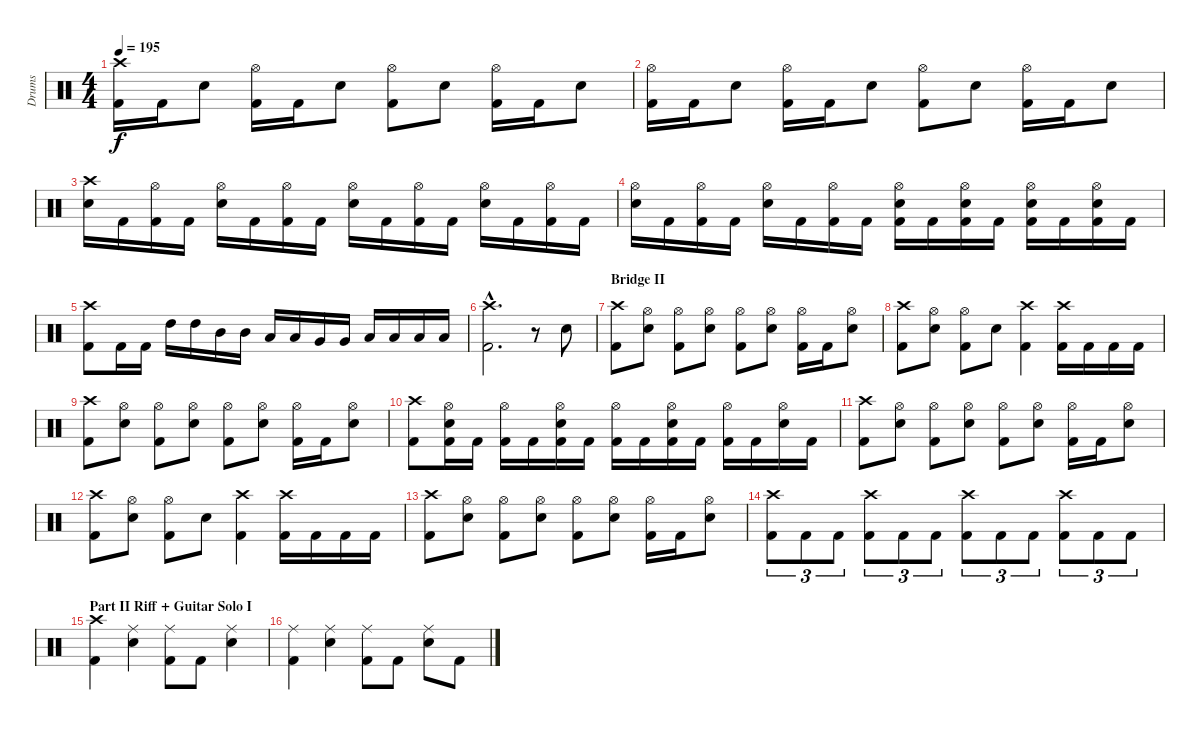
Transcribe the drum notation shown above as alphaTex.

\track ("Drums" "Drums") {instrument percussion}
\staff {score}
\articulation defaults
\ts (4 4)
\tempo 195
\clef neutral
\ks c
("Crash high (hit)" "Kick (hit) 2").16{dy f} "Kick (hit) 2".16 "Snare (hit) 2".8 ("Hi-Hat (open)" "Kick (hit) 2").16 "Kick (hit) 2".16 "Snare (hit) 2".8 ("Hi-Hat (open)" "Kick (hit) 2").8 "Snare (hit) 2".8 ("Hi-Hat (open)" "Kick (hit) 2").16 "Kick (hit) 2".16 "Snare (hit) 2".8 |
("Hi-Hat (open)" "Kick (hit) 2").16 "Kick (hit) 2".16 "Snare (hit) 2".8 ("Hi-Hat (open)" "Kick (hit) 2").16 "Kick (hit) 2".16 "Snare (hit) 2".8 ("Hi-Hat (open)" "Kick (hit) 2").8 "Snare (hit) 2".8 ("Hi-Hat (open)" "Kick (hit) 2").16 "Kick (hit) 2".16 "Snare (hit) 2".8 |
("Crash high (hit)" "Snare (hit) 2").16 "Kick (hit) 2".16 ("Hi-Hat (open)" "Kick (hit) 2").16 "Kick (hit) 2".16 ("Hi-Hat (open)" "Snare (hit) 2").16 "Kick (hit) 2".16 ("Hi-Hat (open)" "Kick (hit) 2").16 "Kick (hit) 2".16 ("Hi-Hat (open)" "Snare (hit) 2").16 "Kick (hit) 2".16 ("Hi-Hat (open)" "Kick (hit) 2").16 "Kick (hit) 2".16 ("Hi-Hat (open)" "Snare (hit) 2").16 "Kick (hit) 2".16 ("Hi-Hat (open)" "Kick (hit) 2").16 "Kick (hit) 2".16 |
("Hi-Hat (open)" "Snare (hit) 2").16 "Kick (hit) 2".16 ("Hi-Hat (open)" "Kick (hit) 2").16 "Kick (hit) 2".16 ("Hi-Hat (open)" "Snare (hit) 2").16 "Kick (hit) 2".16 ("Hi-Hat (open)" "Kick (hit) 2").16 "Kick (hit) 2".16 ("Hi-Hat (open)" "Snare (hit) 2" "Kick (hit) 2").16 "Kick (hit) 2".16 ("Hi-Hat (open)" "Snare (hit) 2" "Kick (hit) 2").16 "Kick (hit) 2".16 ("Hi-Hat (open)" "Snare (hit) 2" "Kick (hit) 2").16 "Kick (hit) 2".16 ("Hi-Hat (open)" "Snare (hit) 2" "Kick (hit) 2").16 "Kick (hit) 2".16 |
("Crash high (hit)" "Kick (hit) 2").8 "Kick (hit) 2".16 "Kick (hit) 2".16 "High Tom (hit)".16 "High Tom (hit)".16 "Mid Tom (hit)".16 "Mid Tom (hit)".16 "Low Tom (hit)".16 "Low Tom (hit)".16 "Very Low Tom (hit)".16 "Very Low Tom (hit)".16 "Low Floor Tom (hit)".16 "Low Floor Tom (hit)".16 "Low Floor Tom (hit)".16 "Low Floor Tom (hit)".16 |
("Crash high (hit)"{hac} "Kick (hit) 2"{hac}).2{d} r.8 "Snare (hit) 2".8 |
\section ("" "Bridge II")
("Crash high (hit)" "Kick (hit) 2").8 ("Hi-Hat (open)" "Snare (hit) 2").8 ("Hi-Hat (open)" "Kick (hit) 2").8 ("Hi-Hat (open)" "Snare (hit) 2").8 ("Hi-Hat (open)" "Kick (hit) 2").8 ("Hi-Hat (open)" "Snare (hit) 2").8 ("Hi-Hat (open)" "Kick (hit) 2").16 "Kick (hit) 2".16 ("Hi-Hat (open)" "Snare (hit) 2").8 |
("Crash high (hit)" "Kick (hit) 2").8 ("Hi-Hat (open)" "Snare (hit) 2").8 ("Hi-Hat (open)" "Kick (hit) 2").8 "Snare (hit) 2".8 ("Crash high (hit)" "Kick (hit) 2").4 ("Crash high (hit)" "Kick (hit) 2").16 "Kick (hit) 2".16 "Kick (hit) 2".16 "Kick (hit) 2".16 |
("Crash high (hit)" "Kick (hit) 2").8 ("Hi-Hat (open)" "Snare (hit) 2").8 ("Hi-Hat (open)" "Kick (hit) 2").8 ("Hi-Hat (open)" "Snare (hit) 2").8 ("Hi-Hat (open)" "Kick (hit) 2").8 ("Hi-Hat (open)" "Snare (hit) 2").8 ("Hi-Hat (open)" "Kick (hit) 2").16 "Kick (hit) 2".16 ("Hi-Hat (open)" "Snare (hit) 2").8 |
("Crash high (hit)" "Kick (hit) 2").8 ("Hi-Hat (open)" "Snare (hit) 2" "Kick (hit) 2").16 "Kick (hit) 2".16 ("Hi-Hat (open)" "Kick (hit) 2").16 "Kick (hit) 2".16 ("Hi-Hat (open)" "Snare (hit) 2" "Kick (hit) 2").16 "Kick (hit) 2".16 ("Hi-Hat (open)" "Kick (hit) 2").16 "Kick (hit) 2".16 ("Hi-Hat (open)" "Snare (hit) 2" "Kick (hit) 2").16 "Kick (hit) 2".16 ("Hi-Hat (open)" "Kick (hit) 2").16 "Kick (hit) 2".16 ("Hi-Hat (open)" "Snare (hit) 2").16 "Kick (hit) 2".16 |
("Crash high (hit)" "Kick (hit) 2").8 ("Hi-Hat (open)" "Snare (hit) 2").8 ("Hi-Hat (open)" "Kick (hit) 2").8 ("Hi-Hat (open)" "Snare (hit) 2").8 ("Hi-Hat (open)" "Kick (hit) 2").8 ("Hi-Hat (open)" "Snare (hit) 2").8 ("Hi-Hat (open)" "Kick (hit) 2").16 "Kick (hit) 2".16 ("Hi-Hat (open)" "Snare (hit) 2").8 |
("Crash high (hit)" "Kick (hit) 2").8 ("Hi-Hat (open)" "Snare (hit) 2").8 ("Hi-Hat (open)" "Kick (hit) 2").8 "Snare (hit) 2".8 ("Crash high (hit)" "Kick (hit) 2").4 ("Crash high (hit)" "Kick (hit) 2").16 "Kick (hit) 2".16 "Kick (hit) 2".16 "Kick (hit) 2".16 |
("Crash high (hit)" "Kick (hit) 2").8 ("Hi-Hat (open)" "Snare (hit) 2").8 ("Hi-Hat (open)" "Kick (hit) 2").8 ("Hi-Hat (open)" "Snare (hit) 2").8 ("Hi-Hat (open)" "Kick (hit) 2").8 ("Hi-Hat (open)" "Snare (hit) 2").8 ("Hi-Hat (open)" "Kick (hit) 2").16 "Kick (hit) 2".16 ("Hi-Hat (open)" "Snare (hit) 2").8 |
("Crash high (hit)" "Kick (hit) 2").8{tu (3 2)} "Kick (hit) 2".8{tu (3 2)} "Kick (hit) 2".8{tu (3 2)} ("Crash high (hit)" "Kick (hit) 2").8{tu (3 2)} "Kick (hit) 2".8{tu (3 2)} "Kick (hit) 2".8{tu (3 2)} ("Crash high (hit)" "Kick (hit) 2").8{tu (3 2)} "Kick (hit) 2".8{tu (3 2)} "Kick (hit) 2".8{tu (3 2)} ("Crash high (hit)" "Kick (hit) 2").8{tu (3 2)} "Kick (hit) 2".8{tu (3 2)} "Kick (hit) 2".8{tu (3 2)} |
\section ("" "Part II Riff + Guitar Solo I")
("Crash high (hit)" "Kick (hit) 2").4 ("Ride (middle)" "Snare (hit) 2").4 ("Ride (middle)" "Kick (hit) 2").8 "Kick (hit) 2".8 ("Ride (middle)" "Snare (hit) 2").4 |
("Ride (middle)" "Kick (hit) 2").4 ("Ride (middle)" "Snare (hit) 2").4 ("Ride (middle)" "Kick (hit) 2").8 "Kick (hit) 2".8 ("Ride (middle)" "Snare (hit) 2").8 "Kick (hit) 2".8
